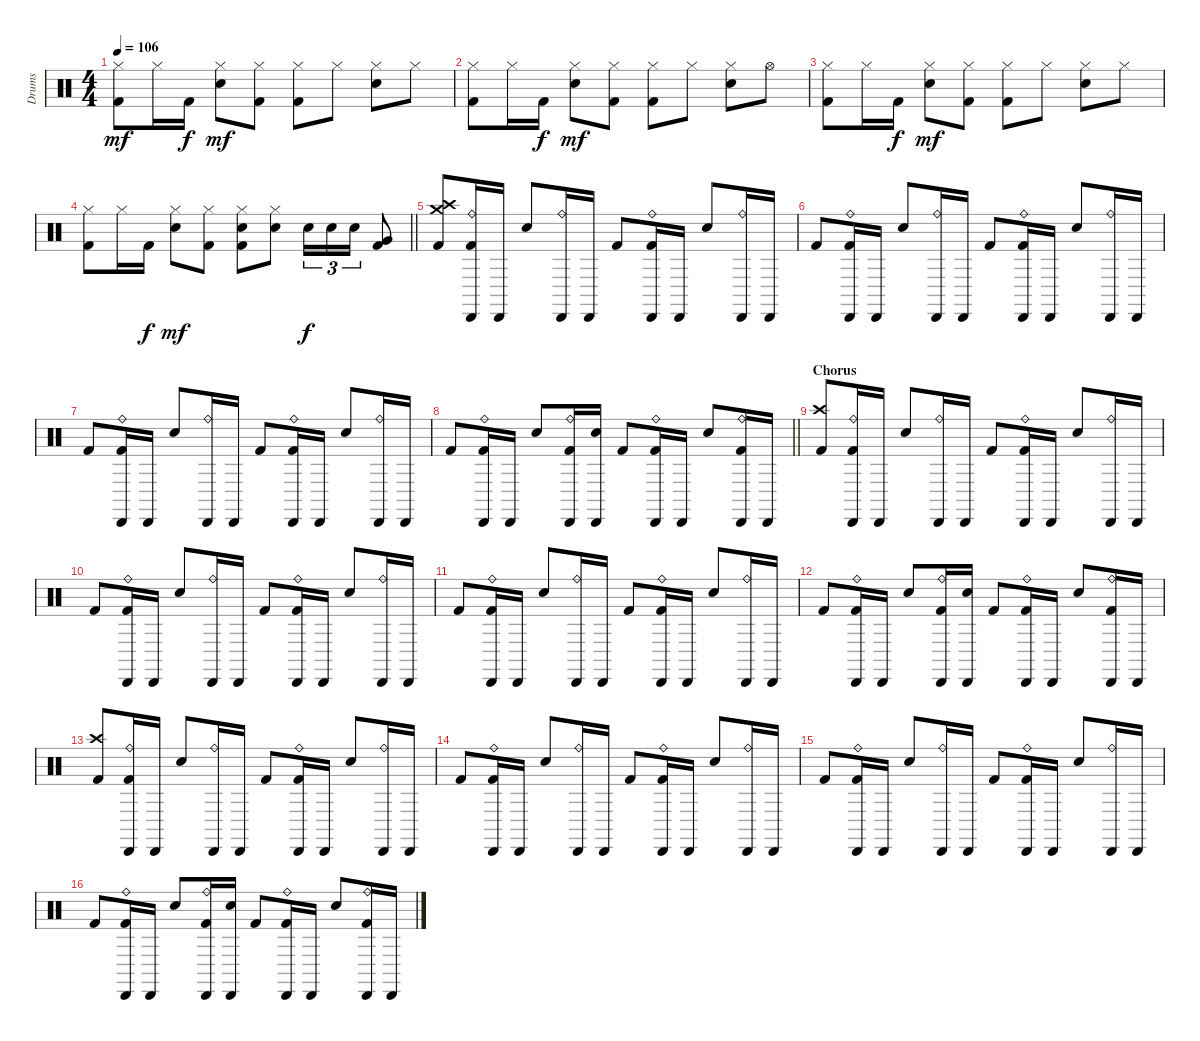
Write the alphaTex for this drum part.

\track ("Drums" "Drums") {instrument percussion}
\staff {score}
\articulation defaults
\ts (4 4)
\tempo 106
\clef neutral
\ks c
("Hi-Hat (closed)" "Kick (hit) 2").8{dy mf} "Hi-Hat (closed)".16 "Kick (hit) 2".16{dy f} ("Hi-Hat (closed)" "Snare (hit) 2").8{dy mf} ("Hi-Hat (closed)" "Kick (hit) 2").8 ("Hi-Hat (closed)" "Kick (hit) 2").8 "Hi-Hat (closed)".8 ("Hi-Hat (closed)" "Snare (hit) 2").8 "Hi-Hat (closed)".8 |
("Hi-Hat (closed)" "Kick (hit) 2").8 "Hi-Hat (closed)".16 "Kick (hit) 2".16{dy f} ("Hi-Hat (closed)" "Snare (hit) 2").8{dy mf} ("Hi-Hat (closed)" "Kick (hit) 2").8 ("Hi-Hat (closed)" "Kick (hit) 2").8 "Hi-Hat (closed)".8 ("Hi-Hat (closed)" "Snare (hit) 2").8 "Hi-Hat (open)".8 |
("Hi-Hat (closed)" "Kick (hit) 2").8 "Hi-Hat (closed)".16 "Kick (hit) 2".16{dy f} ("Hi-Hat (closed)" "Snare (hit) 2").8{dy mf} ("Hi-Hat (closed)" "Kick (hit) 2").8 ("Hi-Hat (closed)" "Kick (hit) 2").8 "Hi-Hat (closed)".8 ("Hi-Hat (closed)" "Snare (hit) 2").8 "Hi-Hat (closed)".8 |
\barLineRight lightlight
("Hi-Hat (closed)" "Kick (hit) 2").8 "Hi-Hat (closed)".16 "Kick (hit) 2".16{dy f} ("Hi-Hat (closed)" "Snare (hit) 2").8{dy mf} ("Hi-Hat (closed)" "Kick (hit) 2").8 ("Hi-Hat (closed)" "Snare (hit) 2" "Kick (hit) 2").8 ("Hi-Hat (closed)" "Snare (hit) 2").8 "Snare (hit) 2".16{tu (3 2) dy f} "Snare (hit) 2".16{tu (3 2)} "Electric Snare (hit)".16{tu (3 2)} ("Very Low Tom (hit)" "Kick (hit) 2").8 |
("Crash high (hit)" "Crash medium (hit)" "Kick (hit) 2").8 ("Ride (bell)" "Cabasa (hit)" "Kick (hit) 2").16 "Cabasa (hit)".16 "Snare (hit) 2".8 ("Ride (bell)" "Cabasa (hit)").16 "Cabasa (hit)".16 "Kick (hit) 2".8 ("Ride (bell)" "Cabasa (hit)" "Kick (hit) 2").16 "Cabasa (hit)".16 "Snare (hit) 2".8 ("Ride (bell)" "Cabasa (hit)").16 "Cabasa (hit)".16 |
"Kick (hit) 2".8 ("Ride (bell)" "Cabasa (hit)" "Kick (hit) 2").16 "Cabasa (hit)".16 "Snare (hit) 2".8 ("Ride (bell)" "Cabasa (hit)").16 "Cabasa (hit)".16 "Kick (hit) 2".8 ("Ride (bell)" "Cabasa (hit)" "Kick (hit) 2").16 "Cabasa (hit)".16 "Snare (hit) 2".8 ("Ride (bell)" "Cabasa (hit)").16 "Cabasa (hit)".16 |
"Kick (hit) 2".8 ("Ride (bell)" "Cabasa (hit)" "Kick (hit) 2").16 "Cabasa (hit)".16 "Snare (hit) 2".8 ("Ride (bell)" "Cabasa (hit)").16 "Cabasa (hit)".16 "Kick (hit) 2".8 ("Ride (bell)" "Cabasa (hit)" "Kick (hit) 2").16 "Cabasa (hit)".16 "Snare (hit) 2".8 ("Ride (bell)" "Cabasa (hit)").16 "Cabasa (hit)".16 |
\barLineRight lightlight "Kick (hit) 2".8
("Ride (bell)" "Cabasa (hit)" "Kick (hit) 2").16 "Cabasa (hit)".16 "Snare (hit) 2".8 ("Ride (bell)" "Cabasa (hit)" "Kick (hit) 2").16 ("Cabasa (hit)" "Snare (hit) 2").16 "Kick (hit) 2".8 ("Ride (bell)" "Cabasa (hit)" "Kick (hit) 2").16 "Cabasa (hit)".16 "Snare (hit) 2".8 ("Ride (bell)" "Cabasa (hit)" "Kick (hit) 2").16 "Cabasa (hit)".16 |
\section ("" "Chorus")
("Crash high (hit)" "Kick (hit) 2").8 ("Ride (bell)" "Cabasa (hit)" "Kick (hit) 2").16 "Cabasa (hit)".16 "Snare (hit) 2".8 ("Ride (bell)" "Cabasa (hit)").16 "Cabasa (hit)".16 "Kick (hit) 2".8 ("Ride (bell)" "Cabasa (hit)" "Kick (hit) 2").16 "Cabasa (hit)".16 "Snare (hit) 2".8 ("Ride (bell)" "Cabasa (hit)").16 "Cabasa (hit)".16 |
"Kick (hit) 2".8 ("Ride (bell)" "Cabasa (hit)" "Kick (hit) 2").16 "Cabasa (hit)".16 "Snare (hit) 2".8 ("Ride (bell)" "Cabasa (hit)").16 "Cabasa (hit)".16 "Kick (hit) 2".8 ("Ride (bell)" "Cabasa (hit)" "Kick (hit) 2").16 "Cabasa (hit)".16 "Snare (hit) 2".8 ("Ride (bell)" "Cabasa (hit)").16 "Cabasa (hit)".16 |
"Kick (hit) 2".8 ("Ride (bell)" "Cabasa (hit)" "Kick (hit) 2").16 "Cabasa (hit)".16 "Snare (hit) 2".8 ("Ride (bell)" "Cabasa (hit)").16 "Cabasa (hit)".16 "Kick (hit) 2".8 ("Ride (bell)" "Cabasa (hit)" "Kick (hit) 2").16 "Cabasa (hit)".16 "Snare (hit) 2".8 ("Ride (bell)" "Cabasa (hit)").16 "Cabasa (hit)".16 |
"Kick (hit) 2".8 ("Ride (bell)" "Cabasa (hit)" "Kick (hit) 2").16 "Cabasa (hit)".16 "Snare (hit) 2".8 ("Ride (bell)" "Cabasa (hit)" "Kick (hit) 2").16 ("Cabasa (hit)" "Snare (hit) 2").16 "Kick (hit) 2".8 ("Ride (bell)" "Cabasa (hit)" "Kick (hit) 2").16 "Cabasa (hit)".16 "Snare (hit) 2".8 ("Ride (bell)" "Cabasa (hit)" "Kick (hit) 2").16 "Cabasa (hit)".16 |
("Crash high (hit)" "Kick (hit) 2").8 ("Ride (bell)" "Cabasa (hit)" "Kick (hit) 2").16 "Cabasa (hit)".16 "Snare (hit) 2".8 ("Ride (bell)" "Cabasa (hit)").16 "Cabasa (hit)".16 "Kick (hit) 2".8 ("Ride (bell)" "Cabasa (hit)" "Kick (hit) 2").16 "Cabasa (hit)".16 "Snare (hit) 2".8 ("Ride (bell)" "Cabasa (hit)").16 "Cabasa (hit)".16 |
"Kick (hit) 2".8 ("Ride (bell)" "Cabasa (hit)" "Kick (hit) 2").16 "Cabasa (hit)".16 "Snare (hit) 2".8 ("Ride (bell)" "Cabasa (hit)").16 "Cabasa (hit)".16 "Kick (hit) 2".8 ("Ride (bell)" "Cabasa (hit)" "Kick (hit) 2").16 "Cabasa (hit)".16 "Snare (hit) 2".8 ("Ride (bell)" "Cabasa (hit)").16 "Cabasa (hit)".16 |
"Kick (hit) 2".8 ("Ride (bell)" "Cabasa (hit)" "Kick (hit) 2").16 "Cabasa (hit)".16 "Snare (hit) 2".8 ("Ride (bell)" "Cabasa (hit)").16 "Cabasa (hit)".16 "Kick (hit) 2".8 ("Ride (bell)" "Cabasa (hit)" "Kick (hit) 2").16 "Cabasa (hit)".16 "Snare (hit) 2".8 ("Ride (bell)" "Cabasa (hit)").16 "Cabasa (hit)".16 |
"Kick (hit) 2".8 ("Ride (bell)" "Cabasa (hit)" "Kick (hit) 2").16 "Cabasa (hit)".16 "Snare (hit) 2".8 ("Ride (bell)" "Cabasa (hit)" "Kick (hit) 2").16 ("Cabasa (hit)" "Snare (hit) 2").16 "Kick (hit) 2".8 ("Ride (bell)" "Cabasa (hit)" "Kick (hit) 2").16 "Cabasa (hit)".16 "Snare (hit) 2".8 ("Ride (bell)" "Cabasa (hit)" "Kick (hit) 2").16 "Cabasa (hit)".16
